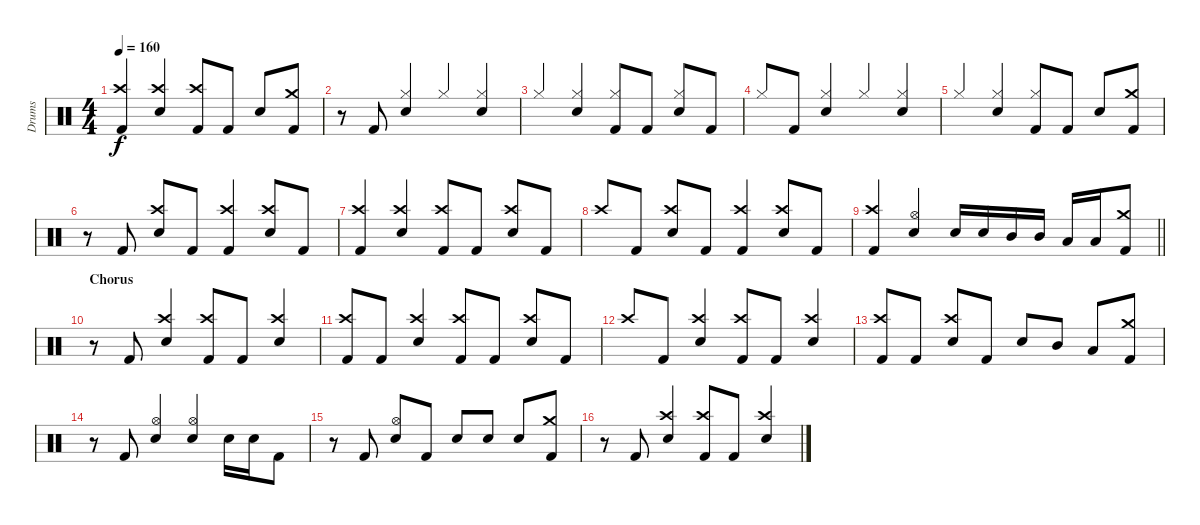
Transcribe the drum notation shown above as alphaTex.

\track ("Drums" "Drums") {solo instrument percussion}
\staff {score}
\articulation defaults
\ts (4 4)
\tempo 160
\clef neutral
\ks c
("Crash high (hit)" "Kick (hit) 2").4{dy f beam Up} ("Crash high (hit)" "Snare (hit) 2").4{beam Up} ("Crash high (hit)" "Kick (hit) 2").8{beam Up} "Kick (hit) 2".8{beam Up} "Snare (hit) 2".8{beam Up} ("Crash medium (hit)" "Kick (hit) 2").8{beam Up} |
r.8{beam Up} "Kick (hit) 2".8{beam Down} ("Hi-Hat (closed)" "Snare (hit) 2").4{beam Up} "Hi-Hat (closed)".4{beam Up} ("Hi-Hat (closed)" "Snare (hit) 2").4{beam Up} |
"Hi-Hat (closed)".4{beam Up} ("Hi-Hat (closed)" "Snare (hit) 2").4{beam Up} ("Hi-Hat (closed)" "Kick (hit) 2").8{beam Up} "Kick (hit) 2".8{beam Up} ("Hi-Hat (closed)" "Snare (hit) 2").8{beam Up} "Kick (hit) 2".8{beam Up} |
"Hi-Hat (closed)".8{beam Up} "Kick (hit) 2".8{beam Up} ("Hi-Hat (closed)" "Snare (hit) 2").4{beam Up} "Hi-Hat (closed)".4{beam Up} ("Hi-Hat (closed)" "Snare (hit) 2").4{beam Up} |
"Hi-Hat (closed)".4{beam Up} ("Hi-Hat (closed)" "Snare (hit) 2").4{beam Up} ("Hi-Hat (closed)" "Kick (hit) 2").8{beam Up} "Kick (hit) 2".8{beam Up} "Snare (hit) 2".8{beam Up} ("Crash medium (hit)" "Kick (hit) 2").8{beam Up} |
r.8{beam Up} "Kick (hit) 2".8{beam Down} ("Crash high (hit)" "Snare (hit) 2").8{beam Up} "Kick (hit) 2".8{beam Up} ("Crash high (hit)" "Kick (hit) 2").4{beam Up} ("Crash high (hit)" "Snare (hit) 2").8{beam Up} "Kick (hit) 2".8{beam Up} |
("Crash high (hit)" "Kick (hit) 2").4{beam Up} ("Crash high (hit)" "Snare (hit) 2").4{beam Up} ("Crash high (hit)" "Kick (hit) 2").8{beam Up} "Kick (hit) 2".8{beam Up} ("Crash high (hit)" "Snare (hit) 2").8{beam Up} "Kick (hit) 2".8{beam Up} |
"Crash high (hit)".8{beam Up} "Kick (hit) 2".8{beam Up} ("Crash high (hit)" "Snare (hit) 2").8{beam Up} "Kick (hit) 2".8{beam Up} ("Crash high (hit)" "Kick (hit) 2").4{beam Up} ("Crash high (hit)" "Snare (hit) 2").8{beam Up} "Kick (hit) 2".8{beam Up} |
\barLineRight lightlight
("Crash high (hit)" "Kick (hit) 2").4{beam Up} ("Hi-Hat (open)" "Snare (hit) 2").4{beam Up} "Snare (hit) 2".16{beam Up} "Snare (hit) 2".16{beam Up} "Mid Tom (hit)".16{beam Up} "Mid Tom (hit)".16{beam Up} "Low Tom (hit)".16{beam Up} "Low Tom (hit)".16{beam Up} ("Crash medium (hit)" "Kick (hit) 2").8{beam Up} |
\section ("" "Chorus")
r.8{beam Up} "Kick (hit) 2".8{beam Down} ("Crash high (hit)" "Snare (hit) 2").4{beam Up} ("Crash high (hit)" "Kick (hit) 2").8{beam Up} "Kick (hit) 2".8{beam Up} ("Crash high (hit)" "Snare (hit) 2").4{beam Up} |
("Crash high (hit)" "Kick (hit) 2").8{beam Up} "Kick (hit) 2".8{beam Up} ("Crash high (hit)" "Snare (hit) 2").4{beam Up} ("Crash high (hit)" "Kick (hit) 2").8{beam Up} "Kick (hit) 2".8{beam Up} ("Crash high (hit)" "Snare (hit) 2").8{beam Up} "Kick (hit) 2".8{beam Up} |
"Crash high (hit)".8{beam Up} "Kick (hit) 2".8{beam Up} ("Crash high (hit)" "Snare (hit) 2").4{beam Up} ("Crash high (hit)" "Kick (hit) 2").8{beam Up} "Kick (hit) 2".8{beam Up} ("Crash high (hit)" "Snare (hit) 2").4{beam Up} |
("Crash high (hit)" "Kick (hit) 2").8{beam Up} "Kick (hit) 2".8{beam Up} ("Crash high (hit)" "Snare (hit) 2").8{beam Up} "Kick (hit) 2".8{beam Up} "Snare (hit) 2".8{beam Up} "Mid Tom (hit)".8{beam Up} "Low Tom (hit)".8{beam Up} ("Crash medium (hit)" "Kick (hit) 2").8{beam Up} |
r.8{beam Up} "Kick (hit) 2".8{beam Down} ("Hi-Hat (open)" "Snare (hit) 2").4{beam Up} ("Hi-Hat (open)" "Snare (hit) 2").4{beam Up} "Snare (hit) 2".16{beam Down} "Snare (hit) 2".16{beam Down} "Kick (hit) 2".8{beam Down} |
r.8{beam Up} "Kick (hit) 2".8{beam Down} ("Hi-Hat (open)" "Snare (hit) 2").8{beam Up} "Kick (hit) 2".8{beam Up} "Snare (hit) 2".8{beam Up} "Snare (hit) 2".8{beam Up} "Snare (hit) 2".8{beam Up} ("Crash medium (hit)" "Kick (hit) 2").8{beam Up} |
r.8{beam Up} "Kick (hit) 2".8{beam Down} ("Crash high (hit)" "Snare (hit) 2").4{beam Up} ("Crash high (hit)" "Kick (hit) 2").8{beam Up} "Kick (hit) 2".8{beam Up} ("Crash high (hit)" "Snare (hit) 2").4{beam Up}
